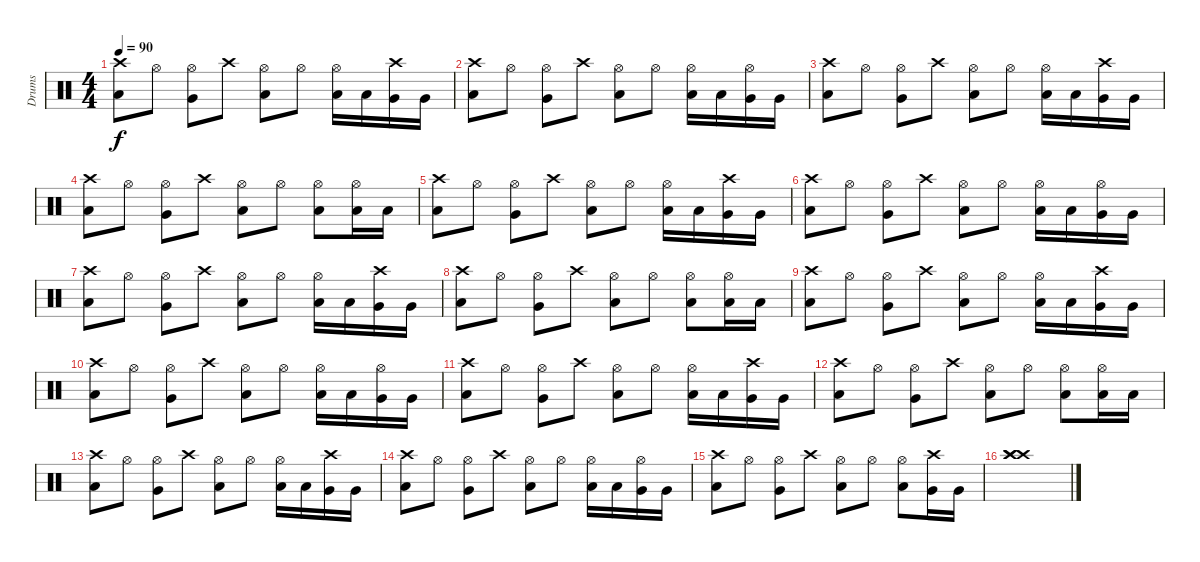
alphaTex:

\track ("Drums" "Drums") {instrument percussion}
\staff {score}
\articulation defaults
\ts (4 4)
\tempo 90
\clef neutral
\ks c
("Crash high (hit)" "Low Floor Tom (hit)").8{dy f volume 16} "Hi-Hat (open)".8 ("Hi-Hat (open)" "Very Low Tom (hit)").8 "Crash high (hit)".8 ("Hi-Hat (open)" "Low Floor Tom (hit)").8 "Hi-Hat (open)".8 ("Hi-Hat (open)" "Low Floor Tom (hit)").16 "Low Floor Tom (hit)".16 ("Crash high (hit)" "Very Low Tom (hit)").16 "Very Low Tom (hit)".16 |
("Crash high (hit)" "Low Floor Tom (hit)").8 "Hi-Hat (open)".8 ("Hi-Hat (open)" "Very Low Tom (hit)").8 "Crash high (hit)".8 ("Hi-Hat (open)" "Low Floor Tom (hit)").8 "Hi-Hat (open)".8 ("Hi-Hat (open)" "Low Floor Tom (hit)").16 "Low Floor Tom (hit)".16 ("Hi-Hat (open)" "Very Low Tom (hit)").16 "Very Low Tom (hit)".16 |
("Crash high (hit)" "Low Floor Tom (hit)").8 "Hi-Hat (open)".8 ("Hi-Hat (open)" "Very Low Tom (hit)").8 "Crash high (hit)".8 ("Hi-Hat (open)" "Low Floor Tom (hit)").8 "Hi-Hat (open)".8 ("Hi-Hat (open)" "Low Floor Tom (hit)").16 "Low Floor Tom (hit)".16 ("Crash high (hit)" "Very Low Tom (hit)").16 "Very Low Tom (hit)".16 |
("Crash high (hit)" "Low Floor Tom (hit)").8 "Hi-Hat (open)".8 ("Hi-Hat (open)" "Very Low Tom (hit)").8 "Crash high (hit)".8 ("Hi-Hat (open)" "Low Floor Tom (hit)").8 "Hi-Hat (open)".8 ("Hi-Hat (open)" "Low Floor Tom (hit)").8 ("Hi-Hat (open)" "Low Floor Tom (hit)").16 "Low Floor Tom (hit)".16 |
("Crash high (hit)" "Low Floor Tom (hit)").8 "Hi-Hat (open)".8 ("Hi-Hat (open)" "Very Low Tom (hit)").8 "Crash high (hit)".8 ("Hi-Hat (open)" "Low Floor Tom (hit)").8 "Hi-Hat (open)".8 ("Hi-Hat (open)" "Low Floor Tom (hit)").16 "Low Floor Tom (hit)".16 ("Crash high (hit)" "Very Low Tom (hit)").16 "Very Low Tom (hit)".16 |
("Crash high (hit)" "Low Floor Tom (hit)").8 "Hi-Hat (open)".8 ("Hi-Hat (open)" "Very Low Tom (hit)").8 "Crash high (hit)".8 ("Hi-Hat (open)" "Low Floor Tom (hit)").8 "Hi-Hat (open)".8 ("Hi-Hat (open)" "Low Floor Tom (hit)").16 "Low Floor Tom (hit)".16 ("Hi-Hat (open)" "Very Low Tom (hit)").16 "Very Low Tom (hit)".16 |
("Crash high (hit)" "Low Floor Tom (hit)").8 "Hi-Hat (open)".8 ("Hi-Hat (open)" "Very Low Tom (hit)").8 "Crash high (hit)".8 ("Hi-Hat (open)" "Low Floor Tom (hit)").8 "Hi-Hat (open)".8 ("Hi-Hat (open)" "Low Floor Tom (hit)").16 "Low Floor Tom (hit)".16 ("Crash high (hit)" "Very Low Tom (hit)").16 "Very Low Tom (hit)".16 |
("Crash high (hit)" "Low Floor Tom (hit)").8 "Hi-Hat (open)".8 ("Hi-Hat (open)" "Very Low Tom (hit)").8 "Crash high (hit)".8 ("Hi-Hat (open)" "Low Floor Tom (hit)").8 "Hi-Hat (open)".8 ("Hi-Hat (open)" "Low Floor Tom (hit)").8 ("Hi-Hat (open)" "Low Floor Tom (hit)").16 "Low Floor Tom (hit)".16 |
("Crash high (hit)" "Low Floor Tom (hit)").8 "Hi-Hat (open)".8 ("Hi-Hat (open)" "Very Low Tom (hit)").8 "Crash high (hit)".8 ("Hi-Hat (open)" "Low Floor Tom (hit)").8 "Hi-Hat (open)".8 ("Hi-Hat (open)" "Low Floor Tom (hit)").16 "Low Floor Tom (hit)".16 ("Crash high (hit)" "Very Low Tom (hit)").16 "Very Low Tom (hit)".16 |
("Crash high (hit)" "Low Floor Tom (hit)").8 "Hi-Hat (open)".8 ("Hi-Hat (open)" "Very Low Tom (hit)").8 "Crash high (hit)".8 ("Hi-Hat (open)" "Low Floor Tom (hit)").8 "Hi-Hat (open)".8 ("Hi-Hat (open)" "Low Floor Tom (hit)").16 "Low Floor Tom (hit)".16 ("Hi-Hat (open)" "Very Low Tom (hit)").16 "Very Low Tom (hit)".16 |
("Crash high (hit)" "Low Floor Tom (hit)").8 "Hi-Hat (open)".8 ("Hi-Hat (open)" "Very Low Tom (hit)").8 "Crash high (hit)".8 ("Hi-Hat (open)" "Low Floor Tom (hit)").8 "Hi-Hat (open)".8 ("Hi-Hat (open)" "Low Floor Tom (hit)").16 "Low Floor Tom (hit)".16 ("Crash high (hit)" "Very Low Tom (hit)").16 "Very Low Tom (hit)".16 |
("Crash high (hit)" "Low Floor Tom (hit)").8 "Hi-Hat (open)".8 ("Hi-Hat (open)" "Very Low Tom (hit)").8 "Crash high (hit)".8 ("Hi-Hat (open)" "Low Floor Tom (hit)").8 "Hi-Hat (open)".8 ("Hi-Hat (open)" "Low Floor Tom (hit)").8 ("Hi-Hat (open)" "Low Floor Tom (hit)").16 "Low Floor Tom (hit)".16 |
("Crash high (hit)" "Low Floor Tom (hit)").8 "Hi-Hat (open)".8 ("Hi-Hat (open)" "Very Low Tom (hit)").8 "Crash high (hit)".8 ("Hi-Hat (open)" "Low Floor Tom (hit)").8 "Hi-Hat (open)".8 ("Hi-Hat (open)" "Low Floor Tom (hit)").16 "Low Floor Tom (hit)".16 ("Crash high (hit)" "Very Low Tom (hit)").16 "Very Low Tom (hit)".16 |
("Crash high (hit)" "Low Floor Tom (hit)").8 "Hi-Hat (open)".8 ("Hi-Hat (open)" "Very Low Tom (hit)").8 "Crash high (hit)".8 ("Hi-Hat (open)" "Low Floor Tom (hit)").8 "Hi-Hat (open)".8 ("Hi-Hat (open)" "Low Floor Tom (hit)").16 "Low Floor Tom (hit)".16 ("Hi-Hat (open)" "Very Low Tom (hit)").16 "Very Low Tom (hit)".16 |
("Crash high (hit)" "Low Floor Tom (hit)").8 "Hi-Hat (open)".8 ("Hi-Hat (open)" "Very Low Tom (hit)").8 "Crash high (hit)".8 ("Hi-Hat (open)" "Low Floor Tom (hit)").8 "Hi-Hat (open)".8 ("Hi-Hat (open)" "Low Floor Tom (hit)").8 ("Crash high (hit)" "Very Low Tom (hit)").16 "Very Low Tom (hit)".16 |
("Crash high (hit)" "Crash high (hit)" "Crash high (hit)").1
